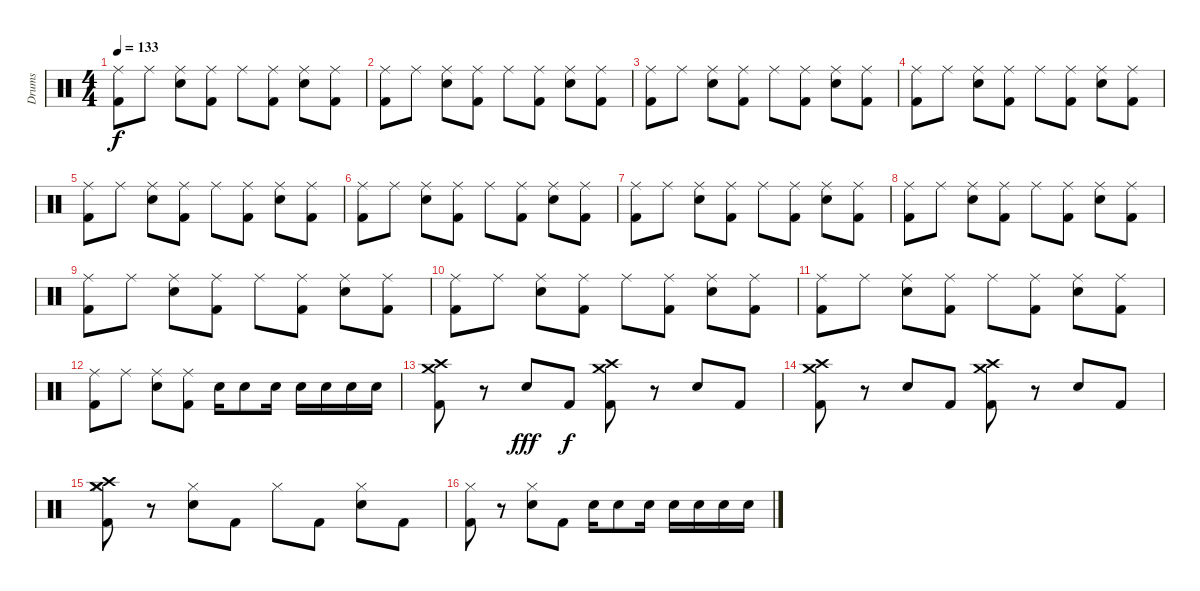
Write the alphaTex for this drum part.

\track ("Drums" "Drums") {instrument percussion}
\staff {score}
\articulation defaults
\ts (4 4)
\tempo 133
\clef neutral
\ks c
("Ride (middle)" "Kick (hit) 2").8{dy f} "Ride (middle)".8 ("Ride (middle)" "Snare (hit) 2").8 ("Ride (middle)" "Kick (hit) 2").8 "Ride (middle)".8 ("Ride (middle)" "Kick (hit) 2").8 ("Ride (middle)" "Snare (hit) 2").8 ("Ride (middle)" "Kick (hit) 2").8 |
("Ride (middle)" "Kick (hit) 2").8 "Ride (middle)".8 ("Ride (middle)" "Snare (hit) 2").8 ("Ride (middle)" "Kick (hit) 2").8 "Ride (middle)".8 ("Ride (middle)" "Kick (hit) 2").8 ("Ride (middle)" "Snare (hit) 2").8 ("Ride (middle)" "Kick (hit) 2").8 |
("Ride (middle)" "Kick (hit) 2").8 "Ride (middle)".8 ("Ride (middle)" "Snare (hit) 2").8 ("Ride (middle)" "Kick (hit) 2").8 "Ride (middle)".8 ("Ride (middle)" "Kick (hit) 2").8 ("Ride (middle)" "Snare (hit) 2").8 ("Ride (middle)" "Kick (hit) 2").8 |
("Ride (middle)" "Kick (hit) 2").8 "Ride (middle)".8 ("Ride (middle)" "Snare (hit) 2").8 ("Ride (middle)" "Kick (hit) 2").8 "Ride (middle)".8 ("Ride (middle)" "Kick (hit) 2").8 ("Ride (middle)" "Snare (hit) 2").8 ("Ride (middle)" "Kick (hit) 2").8 |
("Ride (middle)" "Kick (hit) 2").8 "Ride (middle)".8 ("Ride (middle)" "Snare (hit) 2").8 ("Ride (middle)" "Kick (hit) 2").8 "Ride (middle)".8 ("Ride (middle)" "Kick (hit) 2").8 ("Ride (middle)" "Snare (hit) 2").8 ("Ride (middle)" "Kick (hit) 2").8 |
("Ride (middle)" "Kick (hit) 2").8 "Ride (middle)".8 ("Ride (middle)" "Snare (hit) 2").8 ("Ride (middle)" "Kick (hit) 2").8 "Ride (middle)".8 ("Ride (middle)" "Kick (hit) 2").8 ("Ride (middle)" "Snare (hit) 2").8 ("Ride (middle)" "Kick (hit) 2").8 |
("Ride (middle)" "Kick (hit) 2").8 "Ride (middle)".8 ("Ride (middle)" "Snare (hit) 2").8 ("Ride (middle)" "Kick (hit) 2").8 "Ride (middle)".8 ("Ride (middle)" "Kick (hit) 2").8 ("Ride (middle)" "Snare (hit) 2").8 ("Ride (middle)" "Kick (hit) 2").8 |
("Ride (middle)" "Kick (hit) 2").8 "Ride (middle)".8 ("Ride (middle)" "Snare (hit) 2").8 ("Ride (middle)" "Kick (hit) 2").8 "Ride (middle)".8 ("Ride (middle)" "Kick (hit) 2").8 ("Ride (middle)" "Snare (hit) 2").8 ("Ride (middle)" "Kick (hit) 2").8 |
("Ride (middle)" "Kick (hit) 2").8 "Ride (middle)".8 ("Ride (middle)" "Snare (hit) 2").8 ("Ride (middle)" "Kick (hit) 2").8 "Ride (middle)".8 ("Ride (middle)" "Kick (hit) 2").8 ("Ride (middle)" "Snare (hit) 2").8 ("Ride (middle)" "Kick (hit) 2").8 |
("Ride (middle)" "Kick (hit) 2").8 "Ride (middle)".8 ("Ride (middle)" "Snare (hit) 2").8 ("Ride (middle)" "Kick (hit) 2").8 "Ride (middle)".8 ("Ride (middle)" "Kick (hit) 2").8 ("Ride (middle)" "Snare (hit) 2").8 ("Ride (middle)" "Kick (hit) 2").8 |
("Ride (middle)" "Kick (hit) 2").8 "Ride (middle)".8 ("Ride (middle)" "Snare (hit) 2").8 ("Ride (middle)" "Kick (hit) 2").8 "Ride (middle)".8 ("Ride (middle)" "Kick (hit) 2").8 ("Ride (middle)" "Snare (hit) 2").8 ("Ride (middle)" "Kick (hit) 2").8 |
("Ride (middle)" "Kick (hit) 2").8 "Ride (middle)".8 ("Ride (middle)" "Snare (hit) 2").8 ("Ride (middle)" "Kick (hit) 2").8 "Snare (hit) 2".16 "Snare (hit) 2".8 "Snare (hit) 2".16 "Snare (hit) 2".16 "Snare (hit) 2".16 "Snare (hit) 2".16 "Snare (hit) 2".16 |
("Crash high (hit)" "Crash medium (hit)" "Kick (hit) 2").8 r.8 "Snare (hit) 2".8{dy fff} "Kick (hit) 2".8{dy f} ("Crash high (hit)" "Crash medium (hit)" "Kick (hit) 2").8 r.8 "Snare (hit) 2".8 "Kick (hit) 2".8 |
("Crash high (hit)" "Crash medium (hit)" "Kick (hit) 2").8 r.8 "Snare (hit) 2".8 "Kick (hit) 2".8 ("Crash high (hit)" "Crash medium (hit)" "Kick (hit) 2").8 r.8 "Snare (hit) 2".8 "Kick (hit) 2".8 |
("Crash high (hit)" "Crash medium (hit)" "Hi-Hat (closed)" "Kick (hit) 2").8 r.8 ("Hi-Hat (closed)" "Snare (hit) 2").8 "Kick (hit) 2".8 "Hi-Hat (closed)".8 "Kick (hit) 2".8 ("Hi-Hat (closed)" "Snare (hit) 2").8 "Kick (hit) 2".8 |
("Hi-Hat (closed)" "Kick (hit) 2").8 r.8 ("Hi-Hat (closed)" "Snare (hit) 2").8 "Kick (hit) 2".8 "Snare (hit) 2".16 "Snare (hit) 2".8 "Snare (hit) 2".16 "Snare (hit) 2".16 "Snare (hit) 2".16 "Snare (hit) 2".16 "Snare (hit) 2".16
